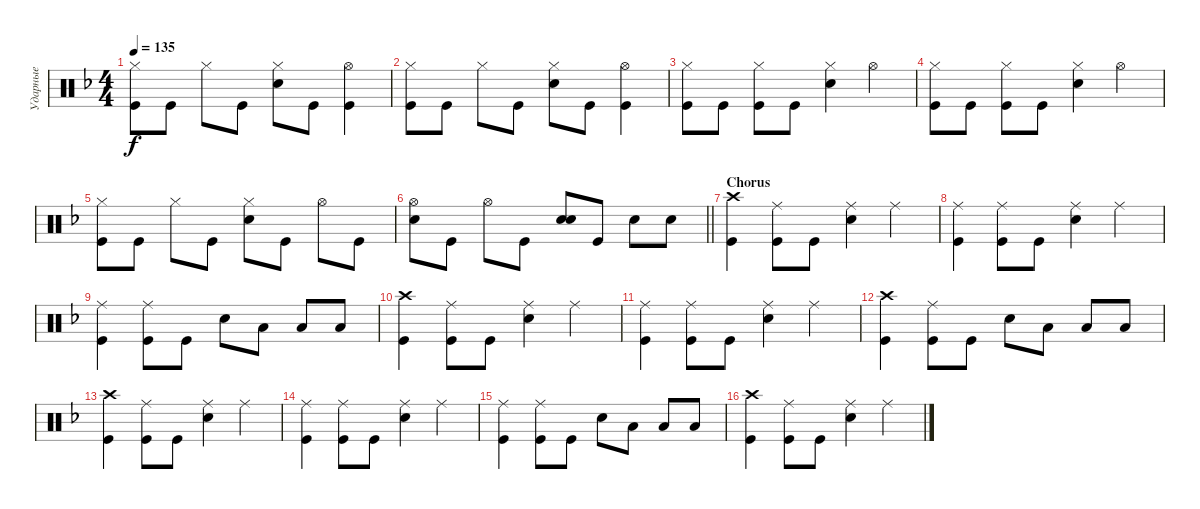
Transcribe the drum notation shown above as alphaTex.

\track ("Ударные" "Ударные") {instrument percussion}
\staff {score}
\articulation defaults
\ts (4 4)
\tempo 135
\clef neutral
\ks dminor
("Kick (hit)" "Hi-Hat (closed)").8{dy f} "Kick (hit)".8 "Hi-Hat (closed)".8 "Kick (hit)".8 ("Snare (hit) 2" "Hi-Hat (closed)").8 "Kick (hit)".8 ("Kick (hit)" "Hi-Hat (open)").4 |
("Kick (hit)" "Hi-Hat (closed)").8 "Kick (hit)".8 "Hi-Hat (closed)".8 "Kick (hit)".8 ("Snare (hit) 2" "Hi-Hat (closed)").8 "Kick (hit)".8 ("Kick (hit)" "Hi-Hat (open)").4 |
("Kick (hit)" "Hi-Hat (closed)").8 "Kick (hit)".8 ("Hi-Hat (closed)" "Kick (hit)").8 "Kick (hit)".8 ("Snare (hit) 2" "Hi-Hat (closed)").4 "Hi-Hat (open)".4 |
("Kick (hit)" "Hi-Hat (closed)").8 "Kick (hit)".8 ("Hi-Hat (closed)" "Kick (hit)").8 "Kick (hit)".8 ("Snare (hit) 2" "Hi-Hat (closed)").4 "Hi-Hat (open)".4 |
("Kick (hit)" "Hi-Hat (closed)").8 "Kick (hit)".8 "Hi-Hat (closed)".8 "Kick (hit)".8 ("Snare (hit) 2" "Hi-Hat (closed)").8 "Kick (hit)".8 "Hi-Hat (open)".8 "Kick (hit)".8 |
\barLineRight lightlight
("Snare (hit) 2" "Hi-Hat (open)").8 "Kick (hit)".8 "Hi-Hat (open)".8 "Kick (hit)".8 ("Snare (hit) 2" "Snare (hit) 2").8{bd 240} "Kick (hit)".8 "Snare (hit) 2".8 "Snare (hit) 2".8 |
\section ("" "Chorus")
("Kick (hit)" "Crash high (hit)").4 ("Kick (hit)" "Ride (middle)").8 "Kick (hit)".8 ("Snare (hit) 2" "Ride (middle)").4 "Ride (middle)".4 |
("Kick (hit)" "Ride (middle)").4 ("Kick (hit)" "Ride (middle)").8 "Kick (hit)".8 ("Snare (hit) 2" "Ride (middle)").4 "Ride (middle)".4 |
("Kick (hit)" "Ride (middle)").4 ("Kick (hit)" "Ride (middle)").8 "Kick (hit)".8 "Snare (hit) 2".8 "Low Tom (hit)".8 "Low Tom (hit)".8 "Low Tom (hit)".8 |
("Kick (hit)" "Crash high (hit)").4 ("Kick (hit)" "Ride (middle)").8 "Kick (hit)".8 ("Snare (hit) 2" "Ride (middle)").4 "Ride (middle)".4 |
("Kick (hit)" "Ride (middle)").4 ("Kick (hit)" "Ride (middle)").8 "Kick (hit)".8 ("Snare (hit) 2" "Ride (middle)").4 "Ride (middle)".4 |
("Kick (hit)" "Crash high (hit)").4 ("Kick (hit)" "Ride (middle)").8 "Kick (hit)".8 "Snare (hit) 2".8 "Low Tom (hit)".8 "Low Tom (hit)".8 "Low Tom (hit)".8 |
("Kick (hit)" "Crash high (hit)").4 ("Kick (hit)" "Ride (middle)").8 "Kick (hit)".8 ("Snare (hit) 2" "Ride (middle)").4 "Ride (middle)".4 |
("Kick (hit)" "Ride (middle)").4 ("Kick (hit)" "Ride (middle)").8 "Kick (hit)".8 ("Snare (hit) 2" "Ride (middle)").4 "Ride (middle)".4 |
("Kick (hit)" "Ride (middle)").4 ("Kick (hit)" "Ride (middle)").8 "Kick (hit)".8 "Snare (hit) 2".8 "Low Tom (hit)".8 "Low Tom (hit)".8 "Low Tom (hit)".8 |
("Kick (hit)" "Crash high (hit)").4 ("Kick (hit)" "Ride (middle)").8 "Kick (hit)".8 ("Snare (hit) 2" "Ride (middle)").4 "Ride (middle)".4
